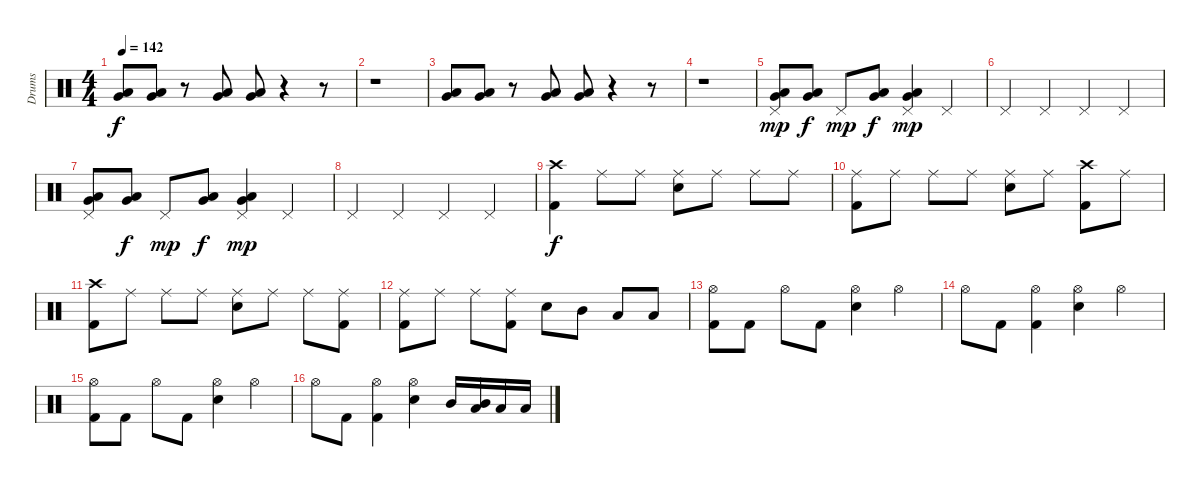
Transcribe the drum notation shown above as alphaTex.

\track ("Drums" "Drums") {instrument percussion}
\staff {score}
\articulation defaults
\ts (4 4)
\tempo 142
\clef neutral
\ks c
("Very Low Tom (hit)" "Low Tom (hit)").8{dy f} ("Very Low Tom (hit)" "Low Tom (hit)").8 r.8 ("Very Low Tom (hit)" "Low Tom (hit)").8 ("Very Low Tom (hit)" "Low Tom (hit)").8 r.4 r.8 |
r.1 |
("Very Low Tom (hit)" "Low Tom (hit)").8 ("Very Low Tom (hit)" "Low Tom (hit)").8 r.8 ("Very Low Tom (hit)" "Low Tom (hit)").8 ("Very Low Tom (hit)" "Low Tom (hit)").8 r.4 r.8 |
r.1 |
("Very Low Tom (hit)" "Low Tom (hit)" "Pedal Hi-Hat (hit)").8{dy mp} ("Very Low Tom (hit)" "Low Tom (hit)").8{dy f} "Pedal Hi-Hat (hit)".8{dy mp} ("Very Low Tom (hit)" "Low Tom (hit)").8{dy f} ("Very Low Tom (hit)" "Low Tom (hit)" "Pedal Hi-Hat (hit)").4{dy mp} "Pedal Hi-Hat (hit)".4 |
"Pedal Hi-Hat (hit)".4 "Pedal Hi-Hat (hit)".4 "Pedal Hi-Hat (hit)".4 "Pedal Hi-Hat (hit)".4 |
("Very Low Tom (hit)" "Low Tom (hit)" "Pedal Hi-Hat (hit)").8 ("Very Low Tom (hit)" "Low Tom (hit)").8{dy f} "Pedal Hi-Hat (hit)".8{dy mp} ("Very Low Tom (hit)" "Low Tom (hit)").8{dy f} ("Very Low Tom (hit)" "Low Tom (hit)" "Pedal Hi-Hat (hit)").4{dy mp} "Pedal Hi-Hat (hit)".4 |
"Pedal Hi-Hat (hit)".4 "Pedal Hi-Hat (hit)".4 "Pedal Hi-Hat (hit)".4 "Pedal Hi-Hat (hit)".4 |
("Crash high (hit)" "Kick (hit) 2").4{dy f} "Ride (middle)".8 "Ride (middle)".8 ("Ride (middle)" "Electric Snare (hit)").8 "Ride (middle)".8 "Ride (middle)".8 "Ride (middle)".8 |
("Ride (middle)" "Kick (hit) 2").8 "Ride (middle)".8 "Ride (middle)".8 "Ride (middle)".8 ("Ride (middle)" "Electric Snare (hit)").8 "Ride (middle)".8 ("Crash high (hit)" "Kick (hit) 2").8 "Ride (middle)".8 |
("Crash high (hit)" "Kick (hit) 2").8 "Ride (middle)".8 "Ride (middle)".8 "Ride (middle)".8 ("Ride (middle)" "Electric Snare (hit)").8 "Ride (middle)".8 "Ride (middle)".8 ("Ride (middle)" "Kick (hit) 2").8 |
("Ride (middle)" "Kick (hit) 2").8 "Ride (middle)".8 "Ride (middle)".8 ("Ride (middle)" "Kick (hit) 2").8 "Electric Snare (hit)".8 "Mid Tom (hit)".8 "Low Tom (hit)".8 "Low Tom (hit)".8 |
("Hi-Hat (open)" "Kick (hit) 2").8 "Kick (hit) 2".8 "Hi-Hat (open)".8 "Kick (hit) 2".8 ("Hi-Hat (open)" "Electric Snare (hit)").4 "Hi-Hat (open)".4 |
"Hi-Hat (open)".8 "Kick (hit) 2".8 ("Hi-Hat (open)" "Kick (hit) 2").4 ("Hi-Hat (open)" "Electric Snare (hit)").4 "Hi-Hat (open)".4 |
("Hi-Hat (open)" "Kick (hit) 2").8 "Kick (hit) 2".8 "Hi-Hat (open)".8 "Kick (hit) 2".8 ("Hi-Hat (open)" "Electric Snare (hit)").4 "Hi-Hat (open)".4 |
"Hi-Hat (open)".8 "Kick (hit) 2".8 ("Hi-Hat (open)" "Kick (hit) 2").4 ("Hi-Hat (open)" "Electric Snare (hit)").4 "Mid Tom (hit)".16 ("Mid Tom (hit)" "Low Tom (hit)").16 "Low Tom (hit)".16 "Low Floor Tom (hit)".16
